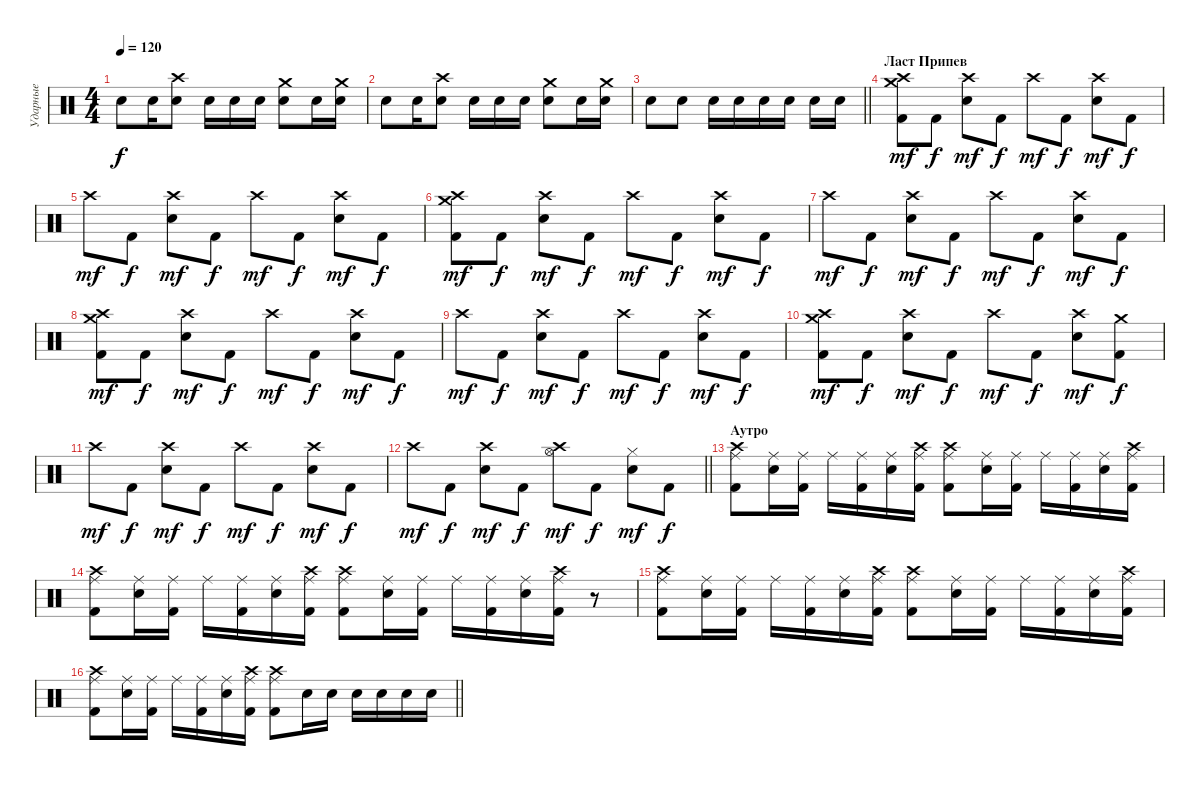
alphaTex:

\track ("Ударные" "Ударные") {instrument percussion}
\staff {score}
\articulation defaults
\ts (4 4)
\tempo 120
\clef neutral
\ks c "Electric Snare (hit)".8{dy f} "Electric Snare (hit)".16
("Crash high (hit)" "Electric Snare (hit)").8 "Snare (hit) 2".16 "Snare (hit) 2".16 "Electric Snare (hit)".16 ("Crash medium (hit)" "Electric Snare (hit)").8 "Snare (hit) 2".16 ("Crash medium (hit)" "Electric Snare (hit)").16 |
"Electric Snare (hit)".8 "Electric Snare (hit)".16 ("Crash high (hit)" "Electric Snare (hit)").8 "Snare (hit) 2".16 "Snare (hit) 2".16 "Electric Snare (hit)".16 ("Crash medium (hit)" "Electric Snare (hit)").8 "Snare (hit) 2".16 ("Crash medium (hit)" "Electric Snare (hit)").16 |
\barLineRight lightlight "Electric Snare (hit)".8 "Electric Snare (hit)".8 "Electric Snare (hit)".16 "Electric Snare (hit)".16 "Electric Snare (hit)".16 "Electric Snare (hit)".16 "Electric Snare (hit)".16 "Electric Snare (hit)".16
|
\section ("" "Ласт Припев")
("Crash medium (hit)" "Crash high (hit)" "Kick (hit) 2").8{dy mf} "Kick (hit) 2".8{dy f} ("Crash high (hit)" "Electric Snare (hit)").8{dy mf} "Kick (hit) 2".8{dy f} "Crash high (hit)".8{dy mf} "Kick (hit) 2".8{dy f} ("Crash high (hit)" "Electric Snare (hit)").8{dy mf} "Kick (hit) 2".8{dy f} |
"Crash high (hit)".8{dy mf} "Kick (hit) 2".8{dy f} ("Crash high (hit)" "Electric Snare (hit)").8{dy mf} "Kick (hit) 2".8{dy f} "Crash high (hit)".8{dy mf} "Kick (hit) 2".8{dy f} ("Crash high (hit)" "Electric Snare (hit)").8{dy mf} "Kick (hit) 2".8{dy f} |
("Crash medium (hit)" "Crash high (hit)" "Kick (hit) 2").8{dy mf} "Kick (hit) 2".8{dy f} ("Crash high (hit)" "Electric Snare (hit)").8{dy mf} "Kick (hit) 2".8{dy f} "Crash high (hit)".8{dy mf} "Kick (hit) 2".8{dy f} ("Crash high (hit)" "Electric Snare (hit)").8{dy mf} "Kick (hit) 2".8{dy f} |
"Crash high (hit)".8{dy mf} "Kick (hit) 2".8{dy f} ("Crash high (hit)" "Electric Snare (hit)").8{dy mf} "Kick (hit) 2".8{dy f} "Crash high (hit)".8{dy mf} "Kick (hit) 2".8{dy f} ("Crash high (hit)" "Electric Snare (hit)").8{dy mf} "Kick (hit) 2".8{dy f} |
("Crash medium (hit)" "Crash high (hit)" "Kick (hit) 2").8{dy mf} "Kick (hit) 2".8{dy f} ("Crash high (hit)" "Electric Snare (hit)").8{dy mf} "Kick (hit) 2".8{dy f} "Crash high (hit)".8{dy mf} "Kick (hit) 2".8{dy f} ("Crash high (hit)" "Electric Snare (hit)").8{dy mf} "Kick (hit) 2".8{dy f} |
"Crash high (hit)".8{dy mf} "Kick (hit) 2".8{dy f} ("Crash high (hit)" "Electric Snare (hit)").8{dy mf} "Kick (hit) 2".8{dy f} "Crash high (hit)".8{dy mf} "Kick (hit) 2".8{dy f} ("Crash high (hit)" "Electric Snare (hit)").8{dy mf} "Kick (hit) 2".8{dy f} |
("Crash medium (hit)" "Crash high (hit)" "Kick (hit) 2").8{dy mf} "Kick (hit) 2".8{dy f} ("Crash high (hit)" "Electric Snare (hit)").8{dy mf} "Kick (hit) 2".8{dy f} "Crash high (hit)".8{dy mf} "Kick (hit) 2".8{dy f} ("Crash high (hit)" "Electric Snare (hit)").8{dy mf} ("Crash medium (hit)" "Kick (hit) 2").8{dy f} |
"Crash high (hit)".8{dy mf} "Kick (hit) 2".8{dy f} ("Crash high (hit)" "Electric Snare (hit)").8{dy mf} "Kick (hit) 2".8{dy f} "Crash high (hit)".8{dy mf} "Kick (hit) 2".8{dy f} ("Crash high (hit)" "Electric Snare (hit)").8{dy mf} "Kick (hit) 2".8{dy f} |
\barLineRight lightlight "Crash high (hit)".8{dy mf} "Kick (hit) 2".8{dy f}
("Crash high (hit)" "Electric Snare (hit)").8{dy mf} "Kick (hit) 2".8{dy f} ("Crash high (hit)" "Hi-Hat (open)").8{dy mf} "Kick (hit) 2".8{dy f} ("Hi-Hat (closed)" "Electric Snare (hit)").8{dy mf} "Kick (hit) 2".8{dy f} |
\section ("" "Аутро")
("Crash high (hit)" "Ride (middle)" "Kick (hit) 2").8 ("Ride (middle)" "Electric Snare (hit)").16 ("Ride (middle)" "Kick (hit) 2").16 "Ride (middle)".16 ("Ride (middle)" "Kick (hit) 2").16 ("Ride (middle)" "Electric Snare (hit)").16 ("Crash high (hit)" "Ride (middle)" "Kick (hit) 2").16 ("Crash high (hit)" "Ride (middle)" "Kick (hit) 2").8 ("Ride (middle)" "Electric Snare (hit)").16 ("Ride (middle)" "Kick (hit) 2").16 "Ride (middle)".16 ("Ride (middle)" "Kick (hit) 2").16 ("Ride (middle)" "Electric Snare (hit)").16 ("Crash high (hit)" "Ride (middle)" "Kick (hit) 2").16 |
("Crash high (hit)" "Ride (middle)" "Kick (hit) 2").8 ("Ride (middle)" "Electric Snare (hit)").16 ("Ride (middle)" "Kick (hit) 2").16 "Ride (middle)".16 ("Ride (middle)" "Kick (hit) 2").16 ("Ride (middle)" "Electric Snare (hit)").16 ("Crash high (hit)" "Ride (middle)" "Kick (hit) 2").16 ("Crash high (hit)" "Ride (middle)" "Kick (hit) 2").8 ("Ride (middle)" "Electric Snare (hit)").16 ("Ride (middle)" "Kick (hit) 2").16 "Ride (middle)".16 ("Ride (middle)" "Kick (hit) 2").16 ("Ride (middle)" "Electric Snare (hit)").16 ("Crash high (hit)" "Ride (middle)" "Kick (hit) 2").16 r.8 |
("Crash high (hit)" "Ride (middle)" "Kick (hit) 2").8 ("Ride (middle)" "Electric Snare (hit)").16 ("Ride (middle)" "Kick (hit) 2").16 "Ride (middle)".16 ("Ride (middle)" "Kick (hit) 2").16 ("Ride (middle)" "Electric Snare (hit)").16 ("Crash high (hit)" "Ride (middle)" "Kick (hit) 2").16 ("Crash high (hit)" "Ride (middle)" "Kick (hit) 2").8 ("Ride (middle)" "Electric Snare (hit)").16 ("Ride (middle)" "Kick (hit) 2").16 "Ride (middle)".16 ("Ride (middle)" "Kick (hit) 2").16 ("Ride (middle)" "Electric Snare (hit)").16 ("Crash high (hit)" "Ride (middle)" "Kick (hit) 2").16 |
\barLineRight lightlight
("Crash high (hit)" "Ride (middle)" "Kick (hit) 2").8 ("Ride (middle)" "Electric Snare (hit)").16 ("Ride (middle)" "Kick (hit) 2").16 "Ride (middle)".16 ("Ride (middle)" "Kick (hit) 2").16 ("Ride (middle)" "Electric Snare (hit)").16 ("Crash high (hit)" "Ride (middle)" "Kick (hit) 2").16 ("Crash high (hit)" "Ride (middle)" "Kick (hit) 2").8 "Snare (hit) 2".16 "Snare (hit) 2".16 "Snare (hit) 2".16 "Electric Snare (hit)".16 "Electric Snare (hit)".16 "Electric Snare (hit)".16
